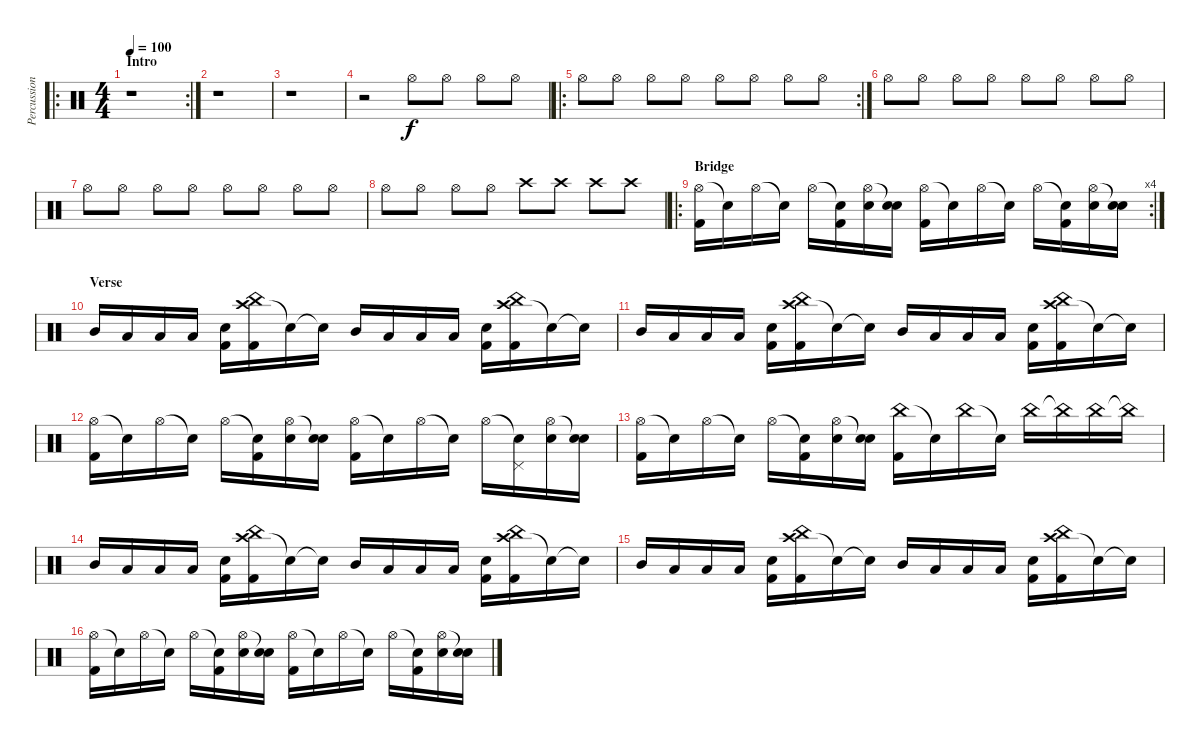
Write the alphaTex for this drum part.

\track ("Percussion" "Percussion") {instrument percussion}
\staff {score}
\articulation defaults
\ro
\rc 2
\ts (4 4)
\section ("" "Intro")
\tempo 100
\clef neutral
\ks c
r.1{dy f} |
r.1 |
r.1 |
r.2 "Hi-Hat (open)".8 "Hi-Hat (open)".8 "Hi-Hat (open)".8 "Hi-Hat (open)".8 |
\ro
\rc 2 "Hi-Hat (open)".8 "Hi-Hat (open)".8 "Hi-Hat (open)".8 "Hi-Hat (open)".8 "Hi-Hat (open)".8 "Hi-Hat (open)".8 "Hi-Hat (open)".8 "Hi-Hat (open)".8
|
"Hi-Hat (open)".8 "Hi-Hat (open)".8 "Hi-Hat (open)".8 "Hi-Hat (open)".8 "Hi-Hat (open)".8 "Hi-Hat (open)".8 "Hi-Hat (open)".8 "Hi-Hat (open)".8 |
"Hi-Hat (open)".8 "Hi-Hat (open)".8 "Hi-Hat (open)".8 "Hi-Hat (open)".8 "Hi-Hat (open)".8 "Hi-Hat (open)".8 "Hi-Hat (open)".8 "Hi-Hat (open)".8 |
"Hi-Hat (open)".8 "Hi-Hat (open)".8 "Hi-Hat (open)".8 "Hi-Hat (open)".8 "Crash high (hit)".8 "Crash high (hit)".8 "Crash high (hit)".8 "Crash high (hit)".8 |
\ro
\rc 4
\section ("" "Bridge")
("Hi-Hat (open)" "Kick (hit) 2").16 "Snare (hit)"{t}.16 "Hi-Hat (open)".16 "Snare (hit)"{t}.16 "Hi-Hat (open)".16 ("Snare (hit)"{t} "Kick (hit) 2").16 ("Hi-Hat (open)" "Snare (hit) 2").16 ("Snare (hit)"{t} "Snare (hit) 2").16 ("Hi-Hat (open)" "Kick (hit) 2").16 "Snare (hit)"{t}.16 "Hi-Hat (open)".16 "Snare (hit)"{t}.16 "Hi-Hat (open)".16 ("Snare (hit)"{t} "Kick (hit) 2").16 ("Hi-Hat (open)" "Snare (hit) 2").16 ("Snare (hit)"{t} "Snare (hit) 2").16 |
\section ("" "Verse")
"Mid Tom (hit)".16 "Low Tom (hit)".16 "Low Floor Tom (hit)".16 "Low Floor Tom (hit)".16 ("Snare (hit) 2" "Kick (hit) 2").16 ("Crash high (hit)" "China (hit)" "Kick (hit) 2").16 "Snare (hit)"{t}.16 "Snare (hit)"{t}.16 "Mid Tom (hit)".16 "Low Tom (hit)".16 "Low Floor Tom (hit)".16 "Low Floor Tom (hit)".16 ("Snare (hit) 2" "Kick (hit) 2").16 ("Crash high (hit)" "China (hit)" "Kick (hit) 2").16 "Snare (hit)"{t}.16 "Snare (hit)"{t}.16 |
"Mid Tom (hit)".16 "Low Tom (hit)".16 "Low Floor Tom (hit)".16 "Low Floor Tom (hit)".16 ("Snare (hit) 2" "Kick (hit) 2").16 ("Crash high (hit)" "China (hit)" "Kick (hit) 2").16 "Snare (hit)"{t}.16 "Snare (hit)"{t}.16 "Mid Tom (hit)".16 "Low Tom (hit)".16 "Low Floor Tom (hit)".16 "Low Floor Tom (hit)".16 ("Snare (hit) 2" "Kick (hit) 2").16 ("Crash high (hit)" "China (hit)" "Kick (hit) 2").16 "Snare (hit)"{t}.16 "Snare (hit)"{t}.16 |
("Hi-Hat (open)" "Kick (hit) 2").16 "Snare (hit)"{t}.16 "Hi-Hat (open)".16 "Snare (hit)"{t}.16 "Hi-Hat (open)".16 ("Snare (hit)"{t} "Kick (hit) 2").16 ("Hi-Hat (open)" "Snare (hit) 2").16 ("Snare (hit)"{t} "Snare (hit) 2").16 ("Hi-Hat (open)" "Kick (hit) 2").16 "Snare (hit)"{t}.16 "Hi-Hat (open)".16 "Snare (hit)"{t}.16 "Hi-Hat (open)".16 ("Snare (hit)"{t} "Pedal Hi-Hat (hit)").16 ("Hi-Hat (open)" "Snare (hit) 2").16 ("Snare (hit)"{t} "Snare (hit) 2").16 |
("Hi-Hat (open)" "Kick (hit) 2").16 "Snare (hit)"{t}.16 "Hi-Hat (open)".16 "Snare (hit)"{t}.16 "Hi-Hat (open)".16 ("Snare (hit)"{t} "Kick (hit) 2").16 ("Hi-Hat (open)" "Snare (hit) 2").16 ("Snare (hit)"{t} "Snare (hit) 2").16 ("China (hit)" "Kick (hit) 2").16 "Snare (hit)"{t}.16 "China (hit)".16 "Snare (hit)"{t}.16 "China (hit)".16 "China (hit)"{t}.16 "China (hit)".16 "China (hit)"{t}.16 |
"Mid Tom (hit)".16 "Low Tom (hit)".16 "Low Floor Tom (hit)".16 "Low Floor Tom (hit)".16 ("Snare (hit) 2" "Kick (hit) 2").16 ("Crash high (hit)" "China (hit)" "Kick (hit) 2").16 "Snare (hit)"{t}.16 "Snare (hit)"{t}.16 "Mid Tom (hit)".16 "Low Tom (hit)".16 "Low Floor Tom (hit)".16 "Low Floor Tom (hit)".16 ("Snare (hit) 2" "Kick (hit) 2").16 ("Crash high (hit)" "China (hit)" "Kick (hit) 2").16 "Snare (hit)"{t}.16 "Snare (hit)"{t}.16 |
"Mid Tom (hit)".16 "Low Tom (hit)".16 "Low Floor Tom (hit)".16 "Low Floor Tom (hit)".16 ("Snare (hit) 2" "Kick (hit) 2").16 ("Crash high (hit)" "China (hit)" "Kick (hit) 2").16 "Snare (hit)"{t}.16 "Snare (hit)"{t}.16 "Mid Tom (hit)".16 "Low Tom (hit)".16 "Low Floor Tom (hit)".16 "Low Floor Tom (hit)".16 ("Snare (hit) 2" "Kick (hit) 2").16 ("Crash high (hit)" "China (hit)" "Kick (hit) 2").16 "Snare (hit)"{t}.16 "Snare (hit)"{t}.16 |
("Hi-Hat (open)" "Kick (hit) 2").16 "Snare (hit)"{t}.16 "Hi-Hat (open)".16 "Snare (hit)"{t}.16 "Hi-Hat (open)".16 ("Snare (hit)"{t} "Kick (hit) 2").16 ("Hi-Hat (open)" "Snare (hit) 2").16 ("Snare (hit)"{t} "Snare (hit) 2").16 ("Hi-Hat (open)" "Kick (hit) 2").16 "Snare (hit)"{t}.16 "Hi-Hat (open)".16 "Snare (hit)"{t}.16 "Hi-Hat (open)".16 ("Snare (hit)"{t} "Kick (hit) 2").16 ("Hi-Hat (open)" "Snare (hit) 2").16 ("Snare (hit)"{t} "Snare (hit) 2").16
